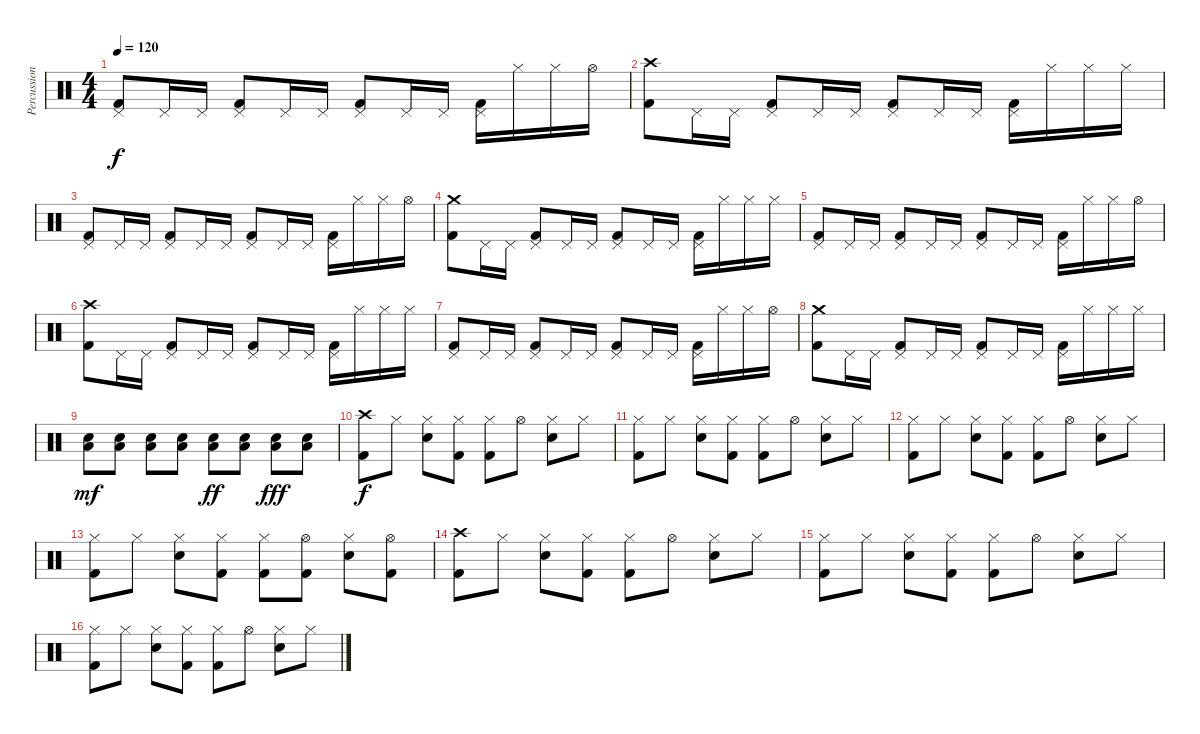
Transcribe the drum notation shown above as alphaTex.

\track ("Percussion" "Percussion") {instrument percussion}
\staff {score}
\articulation defaults
\ts (4 4)
\tempo 120
\clef neutral
\ks c
("Pedal Hi-Hat (hit)" "Kick (hit) 2").8{dy f} "Pedal Hi-Hat (hit)".16 "Pedal Hi-Hat (hit)".16 ("Pedal Hi-Hat (hit)" "Kick (hit) 2").8 "Pedal Hi-Hat (hit)".16 "Pedal Hi-Hat (hit)".16 ("Pedal Hi-Hat (hit)" "Kick (hit) 2").8 "Pedal Hi-Hat (hit)".16 "Pedal Hi-Hat (hit)".16 ("Pedal Hi-Hat (hit)" "Kick (hit) 2").16 "Hi-Hat (closed)".16 "Hi-Hat (closed)".16 "Hi-Hat (open)".16 |
("Crash high (hit)" "Kick (hit) 2").8 "Pedal Hi-Hat (hit)".16 "Pedal Hi-Hat (hit)".16 ("Pedal Hi-Hat (hit)" "Kick (hit) 2").8 "Pedal Hi-Hat (hit)".16 "Pedal Hi-Hat (hit)".16 ("Pedal Hi-Hat (hit)" "Kick (hit) 2").8 "Pedal Hi-Hat (hit)".16 "Pedal Hi-Hat (hit)".16 ("Pedal Hi-Hat (hit)" "Kick (hit) 2").16 "Hi-Hat (closed)".16 "Hi-Hat (closed)".16 "Hi-Hat (closed)".16 |
("Pedal Hi-Hat (hit)" "Kick (hit) 2").8 "Pedal Hi-Hat (hit)".16 "Pedal Hi-Hat (hit)".16 ("Pedal Hi-Hat (hit)" "Kick (hit) 2").8 "Pedal Hi-Hat (hit)".16 "Pedal Hi-Hat (hit)".16 ("Pedal Hi-Hat (hit)" "Kick (hit) 2").8 "Pedal Hi-Hat (hit)".16 "Pedal Hi-Hat (hit)".16 ("Pedal Hi-Hat (hit)" "Kick (hit) 2").16 "Hi-Hat (closed)".16 "Hi-Hat (closed)".16 "Hi-Hat (open)".16 |
("Crash medium (hit)" "Kick (hit) 2").8 "Pedal Hi-Hat (hit)".16 "Pedal Hi-Hat (hit)".16 ("Pedal Hi-Hat (hit)" "Kick (hit) 2").8 "Pedal Hi-Hat (hit)".16 "Pedal Hi-Hat (hit)".16 ("Pedal Hi-Hat (hit)" "Kick (hit) 2").8 "Pedal Hi-Hat (hit)".16 "Pedal Hi-Hat (hit)".16 ("Pedal Hi-Hat (hit)" "Kick (hit) 2").16 "Hi-Hat (closed)".16 "Hi-Hat (closed)".16 "Hi-Hat (closed)".16 |
("Pedal Hi-Hat (hit)" "Kick (hit) 2").8 "Pedal Hi-Hat (hit)".16 "Pedal Hi-Hat (hit)".16 ("Pedal Hi-Hat (hit)" "Kick (hit) 2").8 "Pedal Hi-Hat (hit)".16 "Pedal Hi-Hat (hit)".16 ("Pedal Hi-Hat (hit)" "Kick (hit) 2").8 "Pedal Hi-Hat (hit)".16 "Pedal Hi-Hat (hit)".16 ("Pedal Hi-Hat (hit)" "Kick (hit) 2").16 "Hi-Hat (closed)".16 "Hi-Hat (closed)".16 "Hi-Hat (open)".16 |
("Crash high (hit)" "Kick (hit) 2").8 "Pedal Hi-Hat (hit)".16 "Pedal Hi-Hat (hit)".16 ("Pedal Hi-Hat (hit)" "Kick (hit) 2").8 "Pedal Hi-Hat (hit)".16 "Pedal Hi-Hat (hit)".16 ("Pedal Hi-Hat (hit)" "Kick (hit) 2").8 "Pedal Hi-Hat (hit)".16 "Pedal Hi-Hat (hit)".16 ("Pedal Hi-Hat (hit)" "Kick (hit) 2").16 "Hi-Hat (closed)".16 "Hi-Hat (closed)".16 "Hi-Hat (closed)".16 |
("Pedal Hi-Hat (hit)" "Kick (hit) 2").8 "Pedal Hi-Hat (hit)".16 "Pedal Hi-Hat (hit)".16 ("Pedal Hi-Hat (hit)" "Kick (hit) 2").8 "Pedal Hi-Hat (hit)".16 "Pedal Hi-Hat (hit)".16 ("Pedal Hi-Hat (hit)" "Kick (hit) 2").8 "Pedal Hi-Hat (hit)".16 "Pedal Hi-Hat (hit)".16 ("Pedal Hi-Hat (hit)" "Kick (hit) 2").16 "Hi-Hat (closed)".16 "Hi-Hat (closed)".16 "Hi-Hat (open)".16 |
("Crash medium (hit)" "Kick (hit) 2").8 "Pedal Hi-Hat (hit)".16 "Pedal Hi-Hat (hit)".16 ("Pedal Hi-Hat (hit)" "Kick (hit) 2").8 "Pedal Hi-Hat (hit)".16 "Pedal Hi-Hat (hit)".16 ("Pedal Hi-Hat (hit)" "Kick (hit) 2").8 "Pedal Hi-Hat (hit)".16 "Pedal Hi-Hat (hit)".16 ("Pedal Hi-Hat (hit)" "Kick (hit) 2").16 "Hi-Hat (closed)".16 "Hi-Hat (closed)".16 "Hi-Hat (closed)".16 |
("Low Tom (hit)" "Electric Snare (hit)").8{dy mf} ("Low Tom (hit)" "Electric Snare (hit)").8 ("Low Tom (hit)" "Electric Snare (hit)").8 ("Low Tom (hit)" "Electric Snare (hit)").8 ("Low Tom (hit)" "Electric Snare (hit)").8{dy ff} ("Low Tom (hit)" "Electric Snare (hit)").8 ("Low Tom (hit)" "Electric Snare (hit)").8{dy fff} ("Low Tom (hit)" "Electric Snare (hit)").8 |
("Crash high (hit)" "Kick (hit) 2").8{dy f} "Hi-Hat (closed)".8 ("Hi-Hat (closed)" "Electric Snare (hit)").8 ("Hi-Hat (closed)" "Kick (hit) 2").8 ("Hi-Hat (closed)" "Kick (hit) 2").8 "Hi-Hat (open)".8 ("Hi-Hat (closed)" "Electric Snare (hit)").8 "Hi-Hat (closed)".8 |
("Hi-Hat (closed)" "Kick (hit) 2").8 "Hi-Hat (closed)".8 ("Hi-Hat (closed)" "Electric Snare (hit)").8 ("Hi-Hat (closed)" "Kick (hit) 2").8 ("Hi-Hat (closed)" "Kick (hit) 2").8 "Hi-Hat (open)".8 ("Hi-Hat (closed)" "Electric Snare (hit)").8 "Hi-Hat (closed)".8 |
("Hi-Hat (closed)" "Kick (hit) 2").8 "Hi-Hat (closed)".8 ("Hi-Hat (closed)" "Electric Snare (hit)").8 ("Hi-Hat (closed)" "Kick (hit) 2").8 ("Hi-Hat (closed)" "Kick (hit) 2").8 "Hi-Hat (open)".8 ("Hi-Hat (closed)" "Electric Snare (hit)").8 "Hi-Hat (closed)".8 |
("Hi-Hat (closed)" "Kick (hit) 2").8 "Hi-Hat (closed)".8 ("Hi-Hat (closed)" "Electric Snare (hit)").8 ("Hi-Hat (closed)" "Kick (hit) 2").8 ("Hi-Hat (closed)" "Kick (hit) 2").8 ("Hi-Hat (open)" "Kick (hit) 2").8 ("Hi-Hat (closed)" "Electric Snare (hit)").8 ("Hi-Hat (open)" "Kick (hit) 2").8 |
("Crash high (hit)" "Kick (hit) 2").8 "Hi-Hat (closed)".8 ("Hi-Hat (closed)" "Electric Snare (hit)").8 ("Hi-Hat (closed)" "Kick (hit) 2").8 ("Hi-Hat (closed)" "Kick (hit) 2").8 "Hi-Hat (open)".8 ("Hi-Hat (closed)" "Electric Snare (hit)").8 "Hi-Hat (closed)".8 |
("Hi-Hat (closed)" "Kick (hit) 2").8 "Hi-Hat (closed)".8 ("Hi-Hat (closed)" "Electric Snare (hit)").8 ("Hi-Hat (closed)" "Kick (hit) 2").8 ("Hi-Hat (closed)" "Kick (hit) 2").8 "Hi-Hat (open)".8 ("Hi-Hat (closed)" "Electric Snare (hit)").8 "Hi-Hat (closed)".8 |
("Hi-Hat (closed)" "Kick (hit) 2").8 "Hi-Hat (closed)".8 ("Hi-Hat (closed)" "Electric Snare (hit)").8 ("Hi-Hat (closed)" "Kick (hit) 2").8 ("Hi-Hat (closed)" "Kick (hit) 2").8 "Hi-Hat (open)".8 ("Hi-Hat (closed)" "Electric Snare (hit)").8 "Hi-Hat (closed)".8
